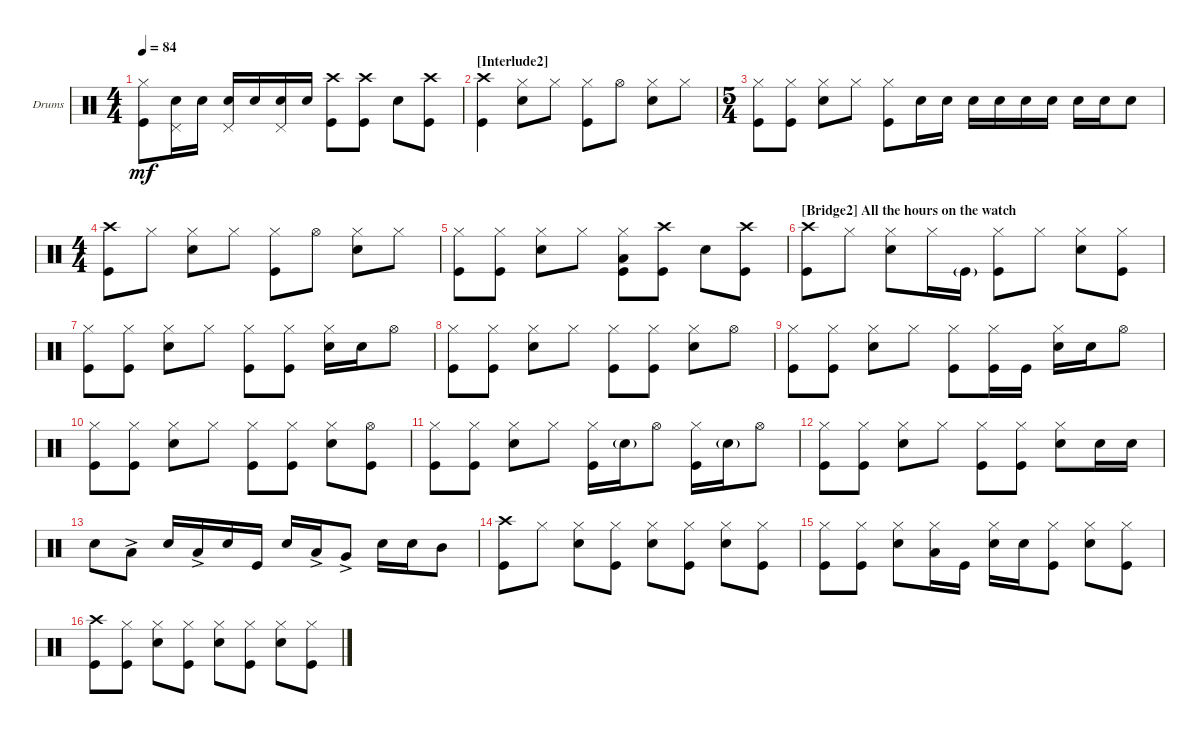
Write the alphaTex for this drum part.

\defaultSystemsLayout 4
\bracketExtendMode groupsimilarinstruments
\firstSystemTrackNameOrientation horizontal
\otherSystemsTrackNameOrientation horizontal
\track ("Drumkit" "Drums") {instrument percussion}
\staff {score}
\articulation defaults
\ts (4 4)
\tempo 84
\clef neutral
\ks aminor
("Kick (hit)" "Hi-Hat (closed)").8{dy mf} ("Snare (hit) 2" "Pedal Hi-Hat (hit)").16 "Snare (hit) 2".16 ("Snare (hit) 2" "Pedal Hi-Hat (hit)").16 "Snare (hit) 2".16 ("Snare (hit) 2" "Pedal Hi-Hat (hit)").16 "Snare (hit) 2".16 ("Kick (hit)" "Crash high (hit)").8 ("Kick (hit)" "Crash high (hit)").8 "Snare (hit) 2".8 ("Kick (hit)" "Crash high (hit)").8 |
\section ("" "[Interlude2]")
("Kick (hit)" "Crash high (hit)").4 ("Hi-Hat (closed)" "Snare (hit) 2").8 "Hi-Hat (closed)".8 ("Hi-Hat (closed)" "Kick (hit)").8 "Hi-Hat (open)".8 ("Hi-Hat (closed)" "Snare (hit) 2").8 "Hi-Hat (closed)".8 |
\ts (5 4)
("Hi-Hat (closed)" "Kick (hit)").8 ("Hi-Hat (closed)" "Kick (hit)").8 ("Hi-Hat (closed)" "Snare (hit) 2").8 "Hi-Hat (closed)".8 ("Hi-Hat (closed)" "Kick (hit)").8 "Snare (hit) 2".16 "Snare (hit) 2".16 "Snare (hit) 2".16 "Snare (hit) 2".16 "Snare (hit) 2".16 "Snare (hit) 2".16 "Snare (hit) 2".16 "Snare (hit) 2".16 "Snare (hit) 2".8 |
\ts (4 4)
("Kick (hit)" "Crash high (hit)").8 "Hi-Hat (closed)".8 ("Hi-Hat (closed)" "Snare (hit) 2").8 "Hi-Hat (closed)".8 ("Hi-Hat (closed)" "Kick (hit)").8 "Hi-Hat (open)".8 ("Hi-Hat (closed)" "Snare (hit) 2").8 "Hi-Hat (closed)".8 |
("Hi-Hat (closed)" "Kick (hit)").8 ("Hi-Hat (closed)" "Kick (hit)").8 ("Hi-Hat (closed)" "Snare (hit) 2").8 "Hi-Hat (closed)".8 ("Hi-Hat (closed)" "Kick (hit)" "Low Tom (hit)").8 ("Crash high (hit)" "Kick (hit)").8 "Snare (hit) 2".8 ("Crash high (hit)" "Kick (hit)").8 |
\section ("" "[Bridge2] All the hours on the watch ")
("Crash high (hit)" "Kick (hit)").8 "Hi-Hat (closed)".8 ("Hi-Hat (closed)" "Snare (hit) 2").8 "Hi-Hat (closed)".16 "Kick (hit)"{g}.16 ("Hi-Hat (closed)" "Kick (hit)").8 "Hi-Hat (closed)".8 ("Hi-Hat (closed)" "Snare (hit) 2").8 ("Hi-Hat (closed)" "Kick (hit)").8 |
("Hi-Hat (closed)" "Kick (hit)").8 ("Hi-Hat (closed)" "Kick (hit)").8 ("Hi-Hat (closed)" "Snare (hit) 2").8 "Hi-Hat (closed)".8 ("Hi-Hat (closed)" "Kick (hit)").8 ("Hi-Hat (closed)" "Kick (hit)").8 ("Hi-Hat (closed)" "Snare (hit) 2").16 "Snare (hit) 2".16 "Hi-Hat (open)".8 |
("Hi-Hat (closed)" "Kick (hit)").8 ("Hi-Hat (closed)" "Kick (hit)").8 ("Hi-Hat (closed)" "Snare (hit) 2").8 "Hi-Hat (closed)".8 ("Hi-Hat (closed)" "Kick (hit)").8 ("Hi-Hat (closed)" "Kick (hit)").8 ("Hi-Hat (closed)" "Snare (hit) 2").8 "Hi-Hat (open)".8 |
("Hi-Hat (closed)" "Kick (hit)").8 ("Hi-Hat (closed)" "Kick (hit)").8 ("Hi-Hat (closed)" "Snare (hit) 2").8 "Hi-Hat (closed)".8 ("Hi-Hat (closed)" "Kick (hit)").8 ("Hi-Hat (closed)" "Kick (hit)").16 "Kick (hit)".16 ("Hi-Hat (closed)" "Snare (hit) 2").16 "Snare (hit) 2".16 "Hi-Hat (open)".8 |
("Hi-Hat (closed)" "Kick (hit)").8 ("Hi-Hat (closed)" "Kick (hit)").8 ("Hi-Hat (closed)" "Snare (hit) 2").8 "Hi-Hat (closed)".8 ("Hi-Hat (closed)" "Kick (hit)").8 ("Hi-Hat (closed)" "Kick (hit)").8 ("Hi-Hat (closed)" "Snare (hit) 2").8 ("Kick (hit)" "Hi-Hat (open)").8 |
("Hi-Hat (closed)" "Kick (hit)").8 ("Hi-Hat (closed)" "Kick (hit)").8 ("Hi-Hat (closed)" "Snare (hit) 2").8 "Hi-Hat (closed)".8 ("Hi-Hat (closed)" "Kick (hit)").16 "Snare (hit) 2"{g}.16 "Hi-Hat (open)".8 ("Hi-Hat (closed)" "Kick (hit)").16 "Snare (hit) 2"{g}.16 "Hi-Hat (open)".8 |
("Hi-Hat (closed)" "Kick (hit)").8 ("Hi-Hat (closed)" "Kick (hit)").8 ("Hi-Hat (closed)" "Snare (hit) 2").8 "Hi-Hat (closed)".8 ("Hi-Hat (closed)" "Kick (hit)").8 ("Hi-Hat (closed)" "Kick (hit)").8 ("Hi-Hat (closed)" "Snare (hit) 2").8 "Snare (hit) 2".16 "Snare (hit) 2".16 |
"Snare (hit) 2".8 "Low Tom (hit)"{ac}.8 "Snare (hit) 2".16 "Low Tom (hit)"{ac}.16 "Snare (hit) 2".16 "Kick (hit)".16 "Snare (hit) 2".16 "Low Tom (hit)"{ac}.16 "Very Low Tom (hit)"{ac}.8 "Snare (hit) 2".16 "Snare (hit) 2".16 "Mid Tom (hit)".8 |
("Crash high (hit)" "Kick (hit)").8 "Hi-Hat (closed)".8 ("Hi-Hat (closed)" "Snare (hit) 2").8 ("Hi-Hat (closed)" "Kick (hit)").8 ("Hi-Hat (closed)" "Snare (hit) 2").8 ("Hi-Hat (closed)" "Kick (hit)").8 ("Hi-Hat (closed)" "Snare (hit) 2").8 ("Hi-Hat (closed)" "Kick (hit)").8 |
("Hi-Hat (closed)" "Kick (hit)").8 ("Hi-Hat (closed)" "Kick (hit)").8 ("Hi-Hat (closed)" "Snare (hit) 2").8 ("Hi-Hat (closed)" "Low Tom (hit)").16 "Kick (hit)".16 ("Hi-Hat (closed)" "Snare (hit) 2").16 "Snare (hit) 2".16 ("Hi-Hat (closed)" "Kick (hit)").8 ("Hi-Hat (closed)" "Snare (hit) 2").8 ("Hi-Hat (closed)" "Kick (hit)").8 |
("Kick (hit)" "Crash high (hit)").8 ("Hi-Hat (closed)" "Kick (hit)").8 ("Hi-Hat (closed)" "Snare (hit) 2").8 ("Hi-Hat (closed)" "Kick (hit)").8 ("Hi-Hat (closed)" "Snare (hit) 2").8 ("Hi-Hat (closed)" "Kick (hit)").8 ("Hi-Hat (closed)" "Snare (hit) 2").8 ("Hi-Hat (closed)" "Kick (hit)").8
